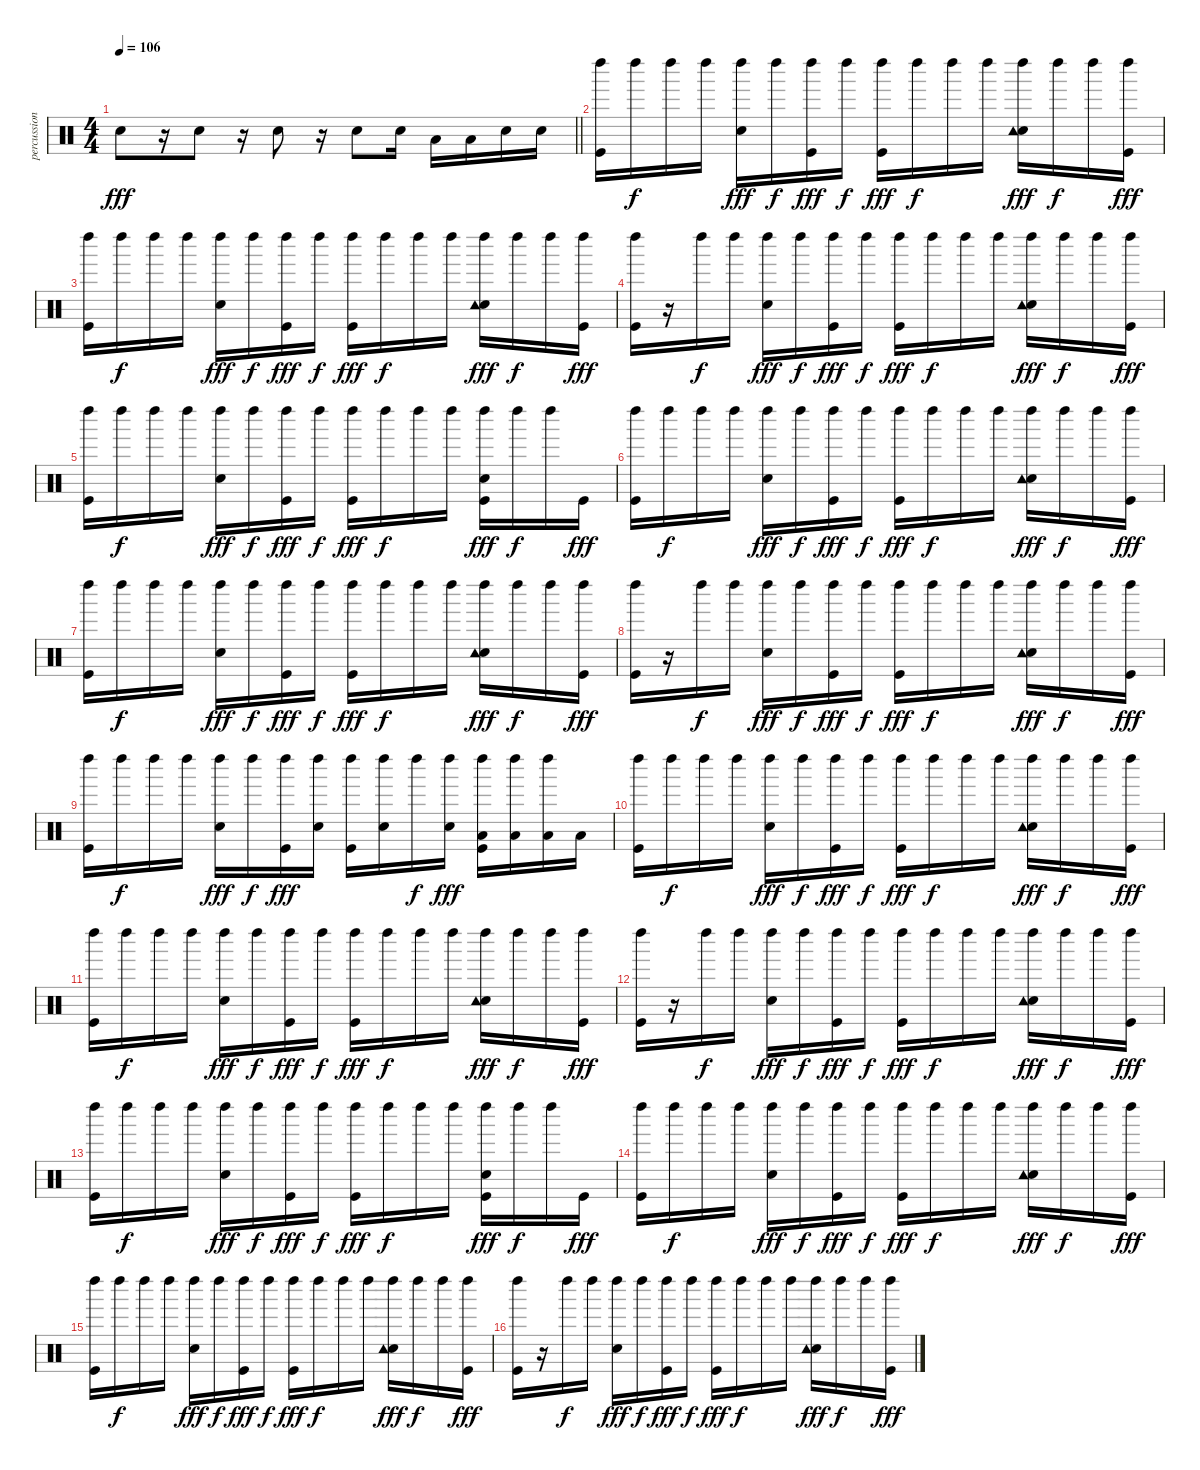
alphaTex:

\track ("percussions" "percussion") {instrument percussion}
\staff {score}
\articulation defaults
\ts (4 4)
\tempo 106
\clef neutral
\barLineRight lightlight
\ks c "Snare (hit) 2".8{dy fff}
r.16 "Snare (hit) 2".8 r.16 "Snare (hit) 2".8 r.16 "Snare (hit) 2".8 "Snare (hit) 2".16 "Low Tom (hit)".16 "Low Tom (hit)".16 "Snare (hit) 2".16 "Snare (hit) 2".16 |
("Left Maraca (hit)" "Kick (hit)").16 "Left Maraca (hit)".16{dy f} "Left Maraca (hit)".16 "Left Maraca (hit)".16 ("Left Maraca (hit)" "Snare (hit) 2").16{dy fff} "Left Maraca (hit)".16{dy f} ("Left Maraca (hit)" "Kick (hit)").16{dy fff} "Left Maraca (hit)".16{dy f} ("Left Maraca (hit)" "Kick (hit)").16{dy fff} "Left Maraca (hit)".16{dy f} "Left Maraca (hit)".16 "Left Maraca (hit)".16 ("Left Maraca (hit)" "Snare (hit) 2" "Tambourine (hit)").16{dy fff} "Left Maraca (hit)".16{dy f} "Left Maraca (hit)".16 ("Left Maraca (hit)" "Kick (hit)").16{dy fff} |
("Left Maraca (hit)" "Kick (hit)").16 "Left Maraca (hit)".16{dy f} "Left Maraca (hit)".16 "Left Maraca (hit)".16 ("Left Maraca (hit)" "Snare (hit) 2").16{dy fff} "Left Maraca (hit)".16{dy f} ("Left Maraca (hit)" "Kick (hit)").16{dy fff} "Left Maraca (hit)".16{dy f} ("Left Maraca (hit)" "Kick (hit)").16{dy fff} "Left Maraca (hit)".16{dy f} "Left Maraca (hit)".16 "Left Maraca (hit)".16 ("Left Maraca (hit)" "Snare (hit) 2" "Tambourine (hit)").16{dy fff} "Left Maraca (hit)".16{dy f} "Left Maraca (hit)".16 ("Left Maraca (hit)" "Kick (hit)").16{dy fff} |
("Left Maraca (hit)" "Kick (hit)").16 r.16 "Left Maraca (hit)".16{dy f} "Left Maraca (hit)".16 ("Left Maraca (hit)" "Snare (hit) 2").16{dy fff} "Left Maraca (hit)".16{dy f} ("Left Maraca (hit)" "Kick (hit)").16{dy fff} "Left Maraca (hit)".16{dy f} ("Left Maraca (hit)" "Kick (hit)").16{dy fff} "Left Maraca (hit)".16{dy f} "Left Maraca (hit)".16 "Left Maraca (hit)".16 ("Left Maraca (hit)" "Snare (hit) 2" "Tambourine (hit)").16{dy fff} "Left Maraca (hit)".16{dy f} "Left Maraca (hit)".16 ("Left Maraca (hit)" "Kick (hit)").16{dy fff} |
("Left Maraca (hit)" "Kick (hit)").16 "Left Maraca (hit)".16{dy f} "Left Maraca (hit)".16 "Left Maraca (hit)".16 ("Left Maraca (hit)" "Snare (hit) 2").16{dy fff} "Left Maraca (hit)".16{dy f} ("Left Maraca (hit)" "Kick (hit)").16{dy fff} "Left Maraca (hit)".16{dy f} ("Left Maraca (hit)" "Kick (hit)").16{dy fff} "Left Maraca (hit)".16{dy f} "Left Maraca (hit)".16 "Left Maraca (hit)".16 ("Left Maraca (hit)" "Snare (hit) 2" "Kick (hit)").16{dy fff} "Left Maraca (hit)".16{dy f} "Left Maraca (hit)".16 "Kick (hit)".16{dy fff} |
("Left Maraca (hit)" "Kick (hit)").16 "Left Maraca (hit)".16{dy f} "Left Maraca (hit)".16 "Left Maraca (hit)".16 ("Left Maraca (hit)" "Snare (hit) 2").16{dy fff} "Left Maraca (hit)".16{dy f} ("Left Maraca (hit)" "Kick (hit)").16{dy fff} "Left Maraca (hit)".16{dy f} ("Left Maraca (hit)" "Kick (hit)").16{dy fff} "Left Maraca (hit)".16{dy f} "Left Maraca (hit)".16 "Left Maraca (hit)".16 ("Left Maraca (hit)" "Snare (hit) 2" "Tambourine (hit)").16{dy fff} "Left Maraca (hit)".16{dy f} "Left Maraca (hit)".16 ("Left Maraca (hit)" "Kick (hit)").16{dy fff} |
("Left Maraca (hit)" "Kick (hit)").16 "Left Maraca (hit)".16{dy f} "Left Maraca (hit)".16 "Left Maraca (hit)".16 ("Left Maraca (hit)" "Snare (hit) 2").16{dy fff} "Left Maraca (hit)".16{dy f} ("Left Maraca (hit)" "Kick (hit)").16{dy fff} "Left Maraca (hit)".16{dy f} ("Left Maraca (hit)" "Kick (hit)").16{dy fff} "Left Maraca (hit)".16{dy f} "Left Maraca (hit)".16 "Left Maraca (hit)".16 ("Left Maraca (hit)" "Snare (hit) 2" "Tambourine (hit)").16{dy fff} "Left Maraca (hit)".16{dy f} "Left Maraca (hit)".16 ("Left Maraca (hit)" "Kick (hit)").16{dy fff} |
("Left Maraca (hit)" "Kick (hit)").16 r.16 "Left Maraca (hit)".16{dy f} "Left Maraca (hit)".16 ("Left Maraca (hit)" "Snare (hit) 2").16{dy fff} "Left Maraca (hit)".16{dy f} ("Left Maraca (hit)" "Kick (hit)").16{dy fff} "Left Maraca (hit)".16{dy f} ("Left Maraca (hit)" "Kick (hit)").16{dy fff} "Left Maraca (hit)".16{dy f} "Left Maraca (hit)".16 "Left Maraca (hit)".16 ("Left Maraca (hit)" "Snare (hit) 2" "Tambourine (hit)").16{dy fff} "Left Maraca (hit)".16{dy f} "Left Maraca (hit)".16 ("Left Maraca (hit)" "Kick (hit)").16{dy fff} |
("Left Maraca (hit)" "Kick (hit)").16 "Left Maraca (hit)".16{dy f} "Left Maraca (hit)".16 "Left Maraca (hit)".16 ("Left Maraca (hit)" "Snare (hit) 2").16{dy fff} "Left Maraca (hit)".16{dy f} ("Left Maraca (hit)" "Kick (hit)").16{dy fff} ("Left Maraca (hit)" "Snare (hit) 2").16 ("Left Maraca (hit)" "Kick (hit)").16 ("Left Maraca (hit)" "Snare (hit) 2").16 "Left Maraca (hit)".16{dy f} ("Left Maraca (hit)" "Snare (hit) 2").16{dy fff} ("Left Maraca (hit)" "Low Tom (hit)" "Kick (hit)").16 ("Left Maraca (hit)" "Low Tom (hit)").16 ("Left Maraca (hit)" "Low Floor Tom (hit)").16 "Low Floor Tom (hit)".16 |
("Left Maraca (hit)" "Kick (hit)").16 "Left Maraca (hit)".16{dy f} "Left Maraca (hit)".16 "Left Maraca (hit)".16 ("Left Maraca (hit)" "Snare (hit) 2").16{dy fff} "Left Maraca (hit)".16{dy f} ("Left Maraca (hit)" "Kick (hit)").16{dy fff} "Left Maraca (hit)".16{dy f} ("Left Maraca (hit)" "Kick (hit)").16{dy fff} "Left Maraca (hit)".16{dy f} "Left Maraca (hit)".16 "Left Maraca (hit)".16 ("Left Maraca (hit)" "Snare (hit) 2" "Tambourine (hit)").16{dy fff} "Left Maraca (hit)".16{dy f} "Left Maraca (hit)".16 ("Left Maraca (hit)" "Kick (hit)").16{dy fff} |
("Left Maraca (hit)" "Kick (hit)").16 "Left Maraca (hit)".16{dy f} "Left Maraca (hit)".16 "Left Maraca (hit)".16 ("Left Maraca (hit)" "Snare (hit) 2").16{dy fff} "Left Maraca (hit)".16{dy f} ("Left Maraca (hit)" "Kick (hit)").16{dy fff} "Left Maraca (hit)".16{dy f} ("Left Maraca (hit)" "Kick (hit)").16{dy fff} "Left Maraca (hit)".16{dy f} "Left Maraca (hit)".16 "Left Maraca (hit)".16 ("Left Maraca (hit)" "Snare (hit) 2" "Tambourine (hit)").16{dy fff} "Left Maraca (hit)".16{dy f} "Left Maraca (hit)".16 ("Left Maraca (hit)" "Kick (hit)").16{dy fff} |
("Left Maraca (hit)" "Kick (hit)").16 r.16 "Left Maraca (hit)".16{dy f} "Left Maraca (hit)".16 ("Left Maraca (hit)" "Snare (hit) 2").16{dy fff} "Left Maraca (hit)".16{dy f} ("Left Maraca (hit)" "Kick (hit)").16{dy fff} "Left Maraca (hit)".16{dy f} ("Left Maraca (hit)" "Kick (hit)").16{dy fff} "Left Maraca (hit)".16{dy f} "Left Maraca (hit)".16 "Left Maraca (hit)".16 ("Left Maraca (hit)" "Snare (hit) 2" "Tambourine (hit)").16{dy fff} "Left Maraca (hit)".16{dy f} "Left Maraca (hit)".16 ("Left Maraca (hit)" "Kick (hit)").16{dy fff} |
("Left Maraca (hit)" "Kick (hit)").16 "Left Maraca (hit)".16{dy f} "Left Maraca (hit)".16 "Left Maraca (hit)".16 ("Left Maraca (hit)" "Snare (hit) 2").16{dy fff} "Left Maraca (hit)".16{dy f} ("Left Maraca (hit)" "Kick (hit)").16{dy fff} "Left Maraca (hit)".16{dy f} ("Left Maraca (hit)" "Kick (hit)").16{dy fff} "Left Maraca (hit)".16{dy f} "Left Maraca (hit)".16 "Left Maraca (hit)".16 ("Left Maraca (hit)" "Snare (hit) 2" "Kick (hit)").16{dy fff} "Left Maraca (hit)".16{dy f} "Left Maraca (hit)".16 "Kick (hit)".16{dy fff} |
("Left Maraca (hit)" "Kick (hit)").16 "Left Maraca (hit)".16{dy f} "Left Maraca (hit)".16 "Left Maraca (hit)".16 ("Left Maraca (hit)" "Snare (hit) 2").16{dy fff} "Left Maraca (hit)".16{dy f} ("Left Maraca (hit)" "Kick (hit)").16{dy fff} "Left Maraca (hit)".16{dy f} ("Left Maraca (hit)" "Kick (hit)").16{dy fff} "Left Maraca (hit)".16{dy f} "Left Maraca (hit)".16 "Left Maraca (hit)".16 ("Left Maraca (hit)" "Snare (hit) 2" "Tambourine (hit)").16{dy fff} "Left Maraca (hit)".16{dy f} "Left Maraca (hit)".16 ("Left Maraca (hit)" "Kick (hit)").16{dy fff} |
("Left Maraca (hit)" "Kick (hit)").16 "Left Maraca (hit)".16{dy f} "Left Maraca (hit)".16 "Left Maraca (hit)".16 ("Left Maraca (hit)" "Snare (hit) 2").16{dy fff} "Left Maraca (hit)".16{dy f} ("Left Maraca (hit)" "Kick (hit)").16{dy fff} "Left Maraca (hit)".16{dy f} ("Left Maraca (hit)" "Kick (hit)").16{dy fff} "Left Maraca (hit)".16{dy f} "Left Maraca (hit)".16 "Left Maraca (hit)".16 ("Left Maraca (hit)" "Snare (hit) 2" "Tambourine (hit)").16{dy fff} "Left Maraca (hit)".16{dy f} "Left Maraca (hit)".16 ("Left Maraca (hit)" "Kick (hit)").16{dy fff} |
("Left Maraca (hit)" "Kick (hit)").16 r.16 "Left Maraca (hit)".16{dy f} "Left Maraca (hit)".16 ("Left Maraca (hit)" "Snare (hit) 2").16{dy fff} "Left Maraca (hit)".16{dy f} ("Left Maraca (hit)" "Kick (hit)").16{dy fff} "Left Maraca (hit)".16{dy f} ("Left Maraca (hit)" "Kick (hit)").16{dy fff} "Left Maraca (hit)".16{dy f} "Left Maraca (hit)".16 "Left Maraca (hit)".16 ("Left Maraca (hit)" "Snare (hit) 2" "Tambourine (hit)").16{dy fff} "Left Maraca (hit)".16{dy f} "Left Maraca (hit)".16 ("Left Maraca (hit)" "Kick (hit)").16{dy fff}
